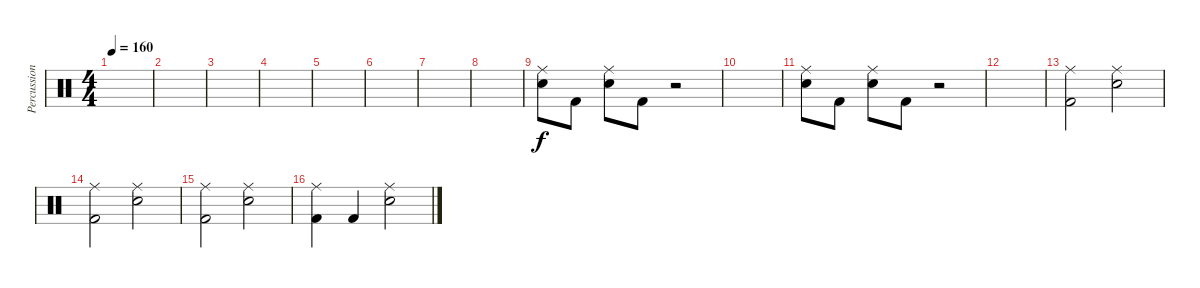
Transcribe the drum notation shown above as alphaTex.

\track ("Percussion" "Percussion") {instrument percussion}
\staff {score}
\articulation defaults
\ts (4 4)
\tempo 160
\clef neutral
\ks c
|
|
|
|
|
|
|
|
("Electric Snare (hit)" "Ride (middle)").8 "Kick (hit) 2".8 ("Electric Snare (hit)" "Ride (middle)").8 "Kick (hit) 2".8 r.2 |
|
("Electric Snare (hit)" "Ride (middle)").8 "Kick (hit) 2".8 ("Electric Snare (hit)" "Ride (middle)").8 "Kick (hit) 2".8 r.2 |
|
("Ride (middle)" "Kick (hit) 2").2 ("Ride (middle)" "Electric Snare (hit)").2 |
("Ride (middle)" "Kick (hit) 2").2 ("Ride (middle)" "Electric Snare (hit)").2 |
("Ride (middle)" "Kick (hit) 2").2 ("Ride (middle)" "Electric Snare (hit)").2 |
("Ride (middle)" "Kick (hit) 2").4 "Kick (hit) 2".4 ("Ride (middle)" "Electric Snare (hit)").2
